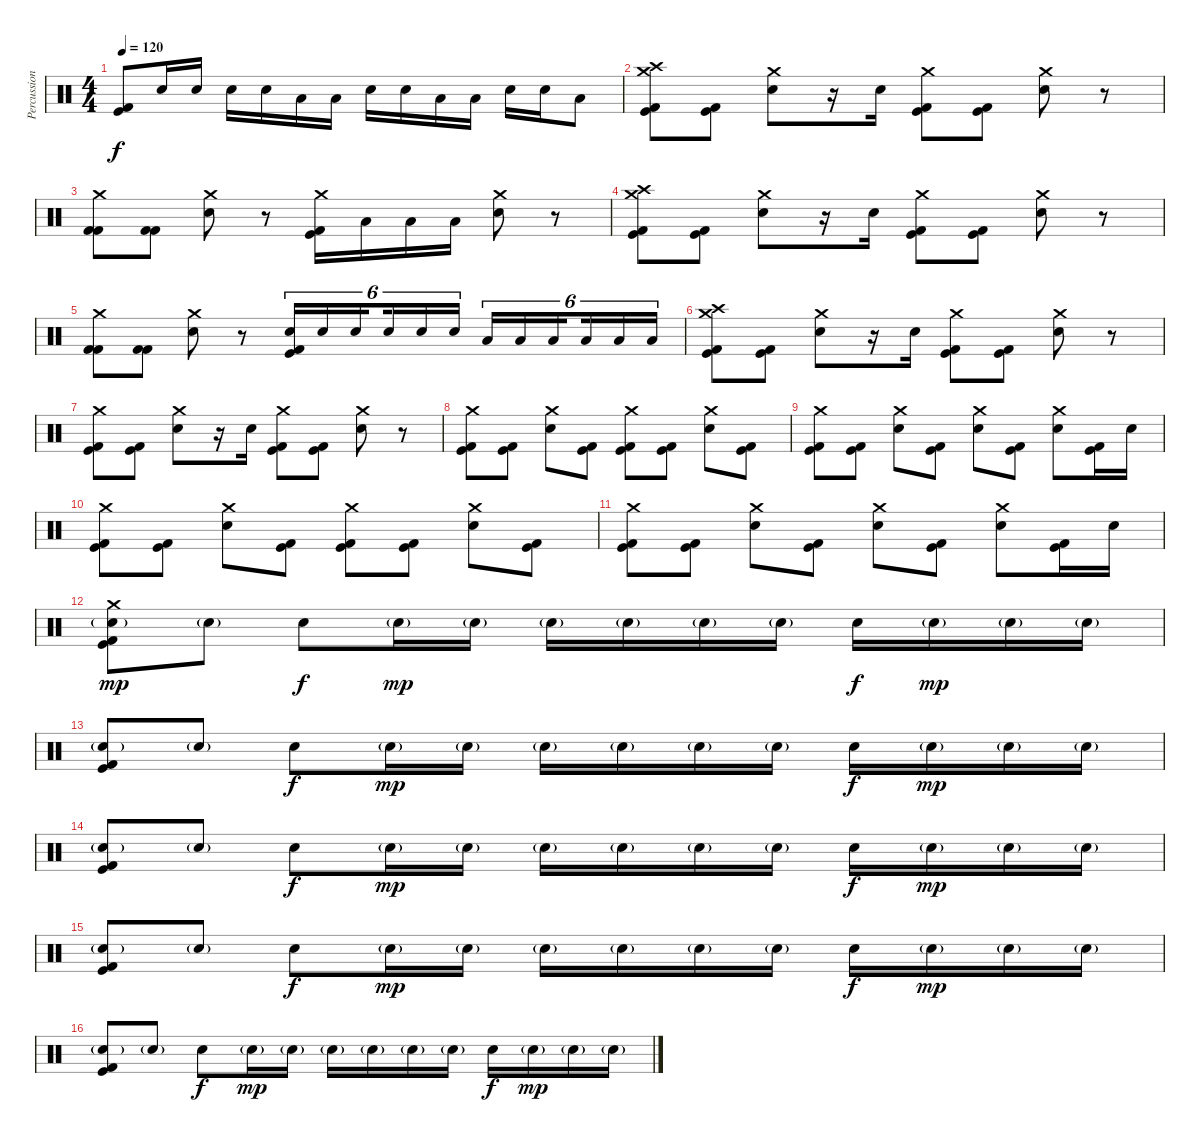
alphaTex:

\track ("Percussion" "Percussion") {instrument percussion}
\staff {score}
\articulation defaults
\ts (4 4)
\tempo 120
\clef neutral
\ks c
("Kick (hit)" "Kick (hit) 2").8{dy f} "Electric Snare (hit)".16 "Electric Snare (hit)".16 "Electric Snare (hit)".16 "Electric Snare (hit)".16 "Low Tom (hit)".16 "Low Tom (hit)".16 "Electric Snare (hit)".16 "Electric Snare (hit)".16 "Low Tom (hit)".16 "Low Tom (hit)".16 "Electric Snare (hit)".16 "Electric Snare (hit)".16 "Low Tom (hit)".8 |
("Crash medium (hit)" "Crash high (hit)" "Kick (hit)" "Kick (hit) 2").8 ("Kick (hit)" "Kick (hit) 2").8 ("Crash medium (hit)" "Electric Snare (hit)").8 r.16 "Electric Snare (hit)".16 ("Crash medium (hit)" "Kick (hit)" "Kick (hit) 2").8 ("Kick (hit)" "Kick (hit) 2").8 ("Crash medium (hit)" "Electric Snare (hit)").8 r.8 |
("Crash medium (hit)" "Kick (hit) 2" "Kick (hit) 2").8 ("Kick (hit) 2" "Kick (hit) 2").8 ("Crash medium (hit)" "Electric Snare (hit)").8 r.8 ("Crash medium (hit)" "Kick (hit)" "Kick (hit) 2").16 "Low Tom (hit)".16 "Low Tom (hit)".16 "Low Tom (hit)".16 ("Crash medium (hit)" "Electric Snare (hit)").8 r.8 |
("Crash medium (hit)" "Crash high (hit)" "Kick (hit)" "Kick (hit) 2").8 ("Kick (hit)" "Kick (hit) 2").8 ("Crash medium (hit)" "Electric Snare (hit)").8 r.16 "Electric Snare (hit)".16 ("Crash medium (hit)" "Kick (hit)" "Kick (hit) 2").8 ("Kick (hit)" "Kick (hit) 2").8 ("Crash medium (hit)" "Electric Snare (hit)").8 r.8 |
("Crash medium (hit)" "Kick (hit) 2" "Kick (hit) 2").8 ("Kick (hit) 2" "Kick (hit) 2").8 ("Crash medium (hit)" "Electric Snare (hit)").8 r.8 ("Electric Snare (hit)" "Kick (hit)" "Kick (hit) 2").16{tu (6 4)} "Electric Snare (hit)".16{tu (6 4)} "Electric Snare (hit)".16{tu (6 4) beam splitsecondary} "Electric Snare (hit)".16{tu (6 4)} "Electric Snare (hit)".16{tu (6 4)} "Electric Snare (hit)".16{tu (6 4)} "Low Tom (hit)".16{tu (6 4)} "Low Tom (hit)".16{tu (6 4)} "Low Tom (hit)".16{tu (6 4) beam splitsecondary} "Low Tom (hit)".16{tu (6 4)} "Low Tom (hit)".16{tu (6 4)} "Low Tom (hit)".16{tu (6 4)} |
("Crash medium (hit)" "Crash high (hit)" "Kick (hit)" "Kick (hit) 2").8 ("Kick (hit)" "Kick (hit) 2").8 ("Crash medium (hit)" "Electric Snare (hit)").8 r.16 "Electric Snare (hit)".16 ("Crash medium (hit)" "Kick (hit)" "Kick (hit) 2").8 ("Kick (hit)" "Kick (hit) 2").8 ("Crash medium (hit)" "Electric Snare (hit)").8 r.8 |
("Crash medium (hit)" "Kick (hit)" "Kick (hit) 2").8 ("Kick (hit)" "Kick (hit) 2").8 ("Crash medium (hit)" "Electric Snare (hit)").8 r.16 "Electric Snare (hit)".16 ("Crash medium (hit)" "Kick (hit)" "Kick (hit) 2").8 ("Kick (hit)" "Kick (hit) 2").8 ("Crash medium (hit)" "Electric Snare (hit)").8 r.8 |
("Crash medium (hit)" "Kick (hit)" "Kick (hit) 2").8 ("Kick (hit)" "Kick (hit) 2").8 ("Crash medium (hit)" "Electric Snare (hit)").8 ("Kick (hit)" "Kick (hit) 2").8 ("Crash medium (hit)" "Kick (hit)" "Kick (hit) 2").8 ("Kick (hit)" "Kick (hit) 2").8 ("Crash medium (hit)" "Electric Snare (hit)").8 ("Kick (hit)" "Kick (hit) 2").8 |
("Crash medium (hit)" "Kick (hit)" "Kick (hit) 2").8 ("Kick (hit)" "Kick (hit) 2").8 ("Crash medium (hit)" "Electric Snare (hit)").8 ("Kick (hit)" "Kick (hit) 2").8 ("Crash medium (hit)" "Electric Snare (hit)").8 ("Kick (hit)" "Kick (hit) 2").8 ("Crash medium (hit)" "Electric Snare (hit)").8 ("Kick (hit)" "Kick (hit) 2").16 "Electric Snare (hit)".16 |
("Crash medium (hit)" "Kick (hit)" "Kick (hit) 2").8 ("Kick (hit)" "Kick (hit) 2").8 ("Crash medium (hit)" "Electric Snare (hit)").8 ("Kick (hit)" "Kick (hit) 2").8 ("Crash medium (hit)" "Kick (hit)" "Kick (hit) 2").8 ("Kick (hit)" "Kick (hit) 2").8 ("Crash medium (hit)" "Electric Snare (hit)").8 ("Kick (hit)" "Kick (hit) 2").8 |
("Crash medium (hit)" "Kick (hit)" "Kick (hit) 2").8 ("Kick (hit)" "Kick (hit) 2").8 ("Crash medium (hit)" "Electric Snare (hit)").8 ("Kick (hit)" "Kick (hit) 2").8 ("Crash medium (hit)" "Electric Snare (hit)").8 ("Kick (hit)" "Kick (hit) 2").8 ("Crash medium (hit)" "Electric Snare (hit)").8 ("Kick (hit)" "Kick (hit) 2").16 "Electric Snare (hit)".16 |
("Crash medium (hit)" "Electric Snare (hit)"{g} "Kick (hit)" "Kick (hit) 2").8{dy mp} "Electric Snare (hit)"{g}.8 "Electric Snare (hit)".8{dy f} "Electric Snare (hit)"{g}.16{dy mp} "Electric Snare (hit)"{g}.16 "Electric Snare (hit)"{g}.16 "Electric Snare (hit)"{g}.16 "Electric Snare (hit)"{g}.16 "Electric Snare (hit)"{g}.16 "Electric Snare (hit)".16{dy f} "Electric Snare (hit)"{g}.16{dy mp} "Electric Snare (hit)"{g}.16 "Electric Snare (hit)"{g}.16 |
("Electric Snare (hit)"{g} "Kick (hit)" "Kick (hit) 2").8 "Electric Snare (hit)"{g}.8 "Electric Snare (hit)".8{dy f} "Electric Snare (hit)"{g}.16{dy mp} "Electric Snare (hit)"{g}.16 "Electric Snare (hit)"{g}.16 "Electric Snare (hit)"{g}.16 "Electric Snare (hit)"{g}.16 "Electric Snare (hit)"{g}.16 "Electric Snare (hit)".16{dy f} "Electric Snare (hit)"{g}.16{dy mp} "Electric Snare (hit)"{g}.16 "Electric Snare (hit)"{g}.16 |
("Electric Snare (hit)"{g} "Kick (hit)" "Kick (hit) 2").8 "Electric Snare (hit)"{g}.8 "Electric Snare (hit)".8{dy f} "Electric Snare (hit)"{g}.16{dy mp} "Electric Snare (hit)"{g}.16 "Electric Snare (hit)"{g}.16 "Electric Snare (hit)"{g}.16 "Electric Snare (hit)"{g}.16 "Electric Snare (hit)"{g}.16 "Electric Snare (hit)".16{dy f} "Electric Snare (hit)"{g}.16{dy mp} "Electric Snare (hit)"{g}.16 "Electric Snare (hit)"{g}.16 |
("Electric Snare (hit)"{g} "Kick (hit)" "Kick (hit) 2").8 "Electric Snare (hit)"{g}.8 "Electric Snare (hit)".8{dy f} "Electric Snare (hit)"{g}.16{dy mp} "Electric Snare (hit)"{g}.16 "Electric Snare (hit)"{g}.16 "Electric Snare (hit)"{g}.16 "Electric Snare (hit)"{g}.16 "Electric Snare (hit)"{g}.16 "Electric Snare (hit)".16{dy f} "Electric Snare (hit)"{g}.16{dy mp} "Electric Snare (hit)"{g}.16 "Electric Snare (hit)"{g}.16 |
("Electric Snare (hit)"{g} "Kick (hit)" "Kick (hit) 2").8 "Electric Snare (hit)"{g}.8 "Electric Snare (hit)".8{dy f} "Electric Snare (hit)"{g}.16{dy mp} "Electric Snare (hit)"{g}.16 "Electric Snare (hit)"{g}.16 "Electric Snare (hit)"{g}.16 "Electric Snare (hit)"{g}.16 "Electric Snare (hit)"{g}.16 "Electric Snare (hit)".16{dy f} "Electric Snare (hit)"{g}.16{dy mp} "Electric Snare (hit)"{g}.16 "Electric Snare (hit)"{g}.16
